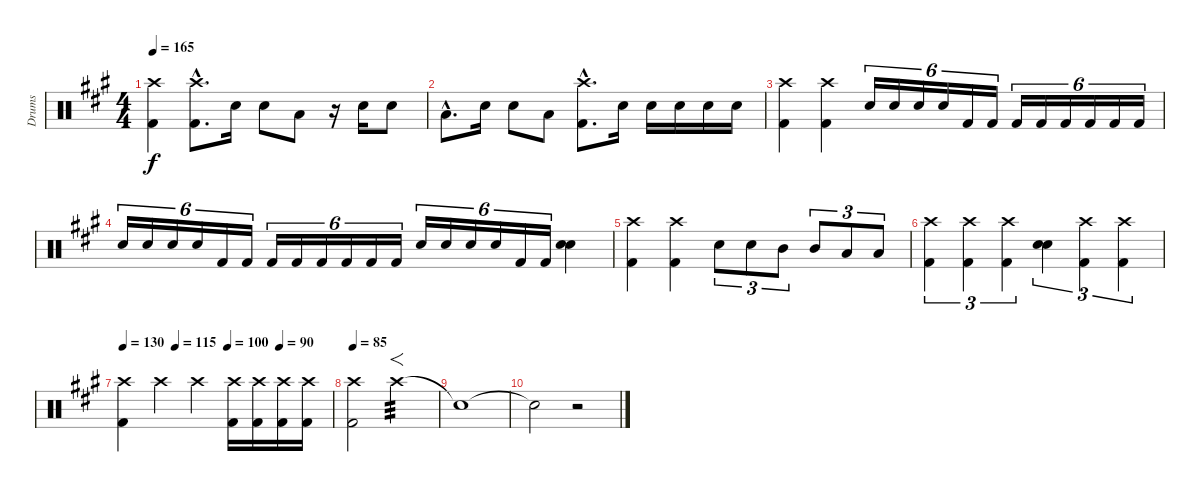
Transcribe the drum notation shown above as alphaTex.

\track ("Drums" "Drums") {instrument percussion}
\staff {score}
\articulation defaults
\ts (4 4)
\tempo 165
\clef neutral
\ks a
("Crash high (hit)" "Kick (hit) 2").4{dy f} ("Crash high (hit)"{hac} "Kick (hit) 2"{hac}).8{d} "Snare (hit) 2".16 "Snare (hit) 2".8 "Low Tom (hit)".8 r.16 "Snare (hit) 2".16 "Snare (hit) 2".8 |
"Low Tom (hit)"{hac}.8{d} "Snare (hit) 2".16 "Snare (hit) 2".8 "Low Tom (hit)".8 ("Crash high (hit)"{hac} "Kick (hit) 2"{hac}).8{d} "Snare (hit) 2".16 "Snare (hit) 2".16 "Snare (hit) 2".16 "Snare (hit) 2".16 "Snare (hit) 2".16 |
("Crash high (hit)" "Kick (hit) 2").4 ("Crash high (hit)" "Kick (hit) 2").4 "Snare (hit) 2".16{tu (6 4)} "Snare (hit) 2".16{tu (6 4)} "Snare (hit) 2".16{tu (6 4)} "Snare (hit) 2".16{tu (6 4)} "Kick (hit) 2".16{tu (6 4)} "Kick (hit) 2".16{tu (6 4)} "Kick (hit) 2".16{tu (6 4)} "Kick (hit) 2".16{tu (6 4)} "Kick (hit) 2".16{tu (6 4)} "Kick (hit) 2".16{tu (6 4)} "Kick (hit) 2".16{tu (6 4)} "Kick (hit) 2".16{tu (6 4)} |
"Snare (hit) 2".16{tu (6 4)} "Snare (hit) 2".16{tu (6 4)} "Snare (hit) 2".16{tu (6 4)} "Snare (hit) 2".16{tu (6 4)} "Kick (hit) 2".16{tu (6 4)} "Kick (hit) 2".16{tu (6 4)} "Kick (hit) 2".16{tu (6 4)} "Kick (hit) 2".16{tu (6 4)} "Kick (hit) 2".16{tu (6 4)} "Kick (hit) 2".16{tu (6 4)} "Kick (hit) 2".16{tu (6 4)} "Kick (hit) 2".16{tu (6 4)} "Snare (hit) 2".16{tu (6 4)} "Snare (hit) 2".16{tu (6 4)} "Snare (hit) 2".16{tu (6 4)} "Snare (hit) 2".16{tu (6 4)} "Kick (hit) 2".16{tu (6 4)} "Kick (hit) 2".16{tu (6 4)} ("Snare (hit) 2" "Snare (hit) 2").4 |
("Crash high (hit)" "Kick (hit) 2").4 ("Crash high (hit)" "Kick (hit) 2").4 "Snare (hit) 2".8{tu (3 2)} "Snare (hit) 2".8{tu (3 2)} "Mid Tom (hit)".8{tu (3 2)} "Mid Tom (hit)".8{tu (3 2)} "Low Tom (hit)".8{tu (3 2)} "Low Floor Tom (hit)".8{tu (3 2)} |
("Crash high (hit)" "Kick (hit) 2").4{tu (3 2)} ("Crash high (hit)" "Kick (hit) 2").4{tu (3 2)} ("Crash high (hit)" "Kick (hit) 2").4{tu (3 2)} ("Snare (hit) 2" "Snare (hit) 2").4{tu (3 2)} ("Crash high (hit)" "Kick (hit) 2").4{tu (3 2)} ("Crash high (hit)" "Kick (hit) 2").4{tu (3 2)} |
\tempo 130
\tempo (115 0.25)
\tempo (100 0.5)
\tempo (90 0.75)
("Crash high (hit)" "Kick (hit) 2").4 "Crash high (hit)".4 "Crash high (hit)".4 ("Crash high (hit)" "Kick (hit) 2").16 ("Crash high (hit)" "Kick (hit) 2").16 ("Crash high (hit)" "Kick (hit) 2").16 ("Crash high (hit)" "Kick (hit) 2").16 |
\tempo 85
("Crash high (hit)" "Kick (hit) 2").2 "Crash high (hit)".2{f tp 3} |
"Snare (hit)"{t}.1 |
"Snare (hit)"{t}.2 r.2
